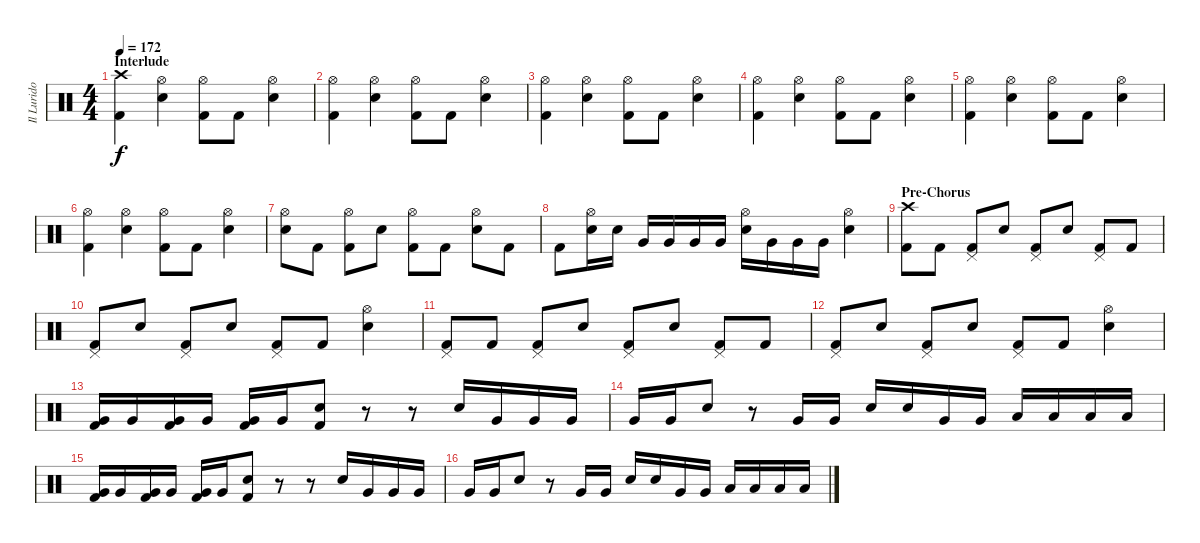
\track ("Il Lurido Cavernicolo (Drums)" "Il Lurido ") {instrument percussion}
\staff {score}
\articulation defaults
\ts (4 4)
\section ("" "Interlude")
\tempo 172
\clef neutral
\ks c
("Crash high (hit)" "Kick (hit) 2").4{dy f} ("Hi-Hat (open)" "Electric Snare (hit)").4 ("Hi-Hat (open)" "Kick (hit) 2").8 "Kick (hit) 2".8 ("Hi-Hat (open)" "Electric Snare (hit)").4 |
("Hi-Hat (open)" "Kick (hit) 2").4 ("Hi-Hat (open)" "Electric Snare (hit)").4 ("Hi-Hat (open)" "Kick (hit) 2").8 "Kick (hit) 2".8 ("Hi-Hat (open)" "Electric Snare (hit)").4 |
("Hi-Hat (open)" "Kick (hit) 2").4 ("Hi-Hat (open)" "Electric Snare (hit)").4 ("Hi-Hat (open)" "Kick (hit) 2").8 "Kick (hit) 2".8 ("Hi-Hat (open)" "Electric Snare (hit)").4 |
("Hi-Hat (open)" "Kick (hit) 2").4 ("Hi-Hat (open)" "Electric Snare (hit)").4 ("Hi-Hat (open)" "Kick (hit) 2").8 "Kick (hit) 2".8 ("Hi-Hat (open)" "Electric Snare (hit)").4 |
("Hi-Hat (open)" "Kick (hit) 2").4 ("Hi-Hat (open)" "Electric Snare (hit)").4 ("Hi-Hat (open)" "Kick (hit) 2").8 "Kick (hit) 2".8 ("Hi-Hat (open)" "Electric Snare (hit)").4 |
("Hi-Hat (open)" "Kick (hit) 2").4 ("Hi-Hat (open)" "Electric Snare (hit)").4 ("Hi-Hat (open)" "Kick (hit) 2").8 "Kick (hit) 2".8 ("Hi-Hat (open)" "Electric Snare (hit)").4 |
("Hi-Hat (open)" "Electric Snare (hit)").8 "Kick (hit) 2".8 ("Hi-Hat (open)" "Kick (hit) 2").8 "Electric Snare (hit)".8 ("Hi-Hat (open)" "Kick (hit) 2").8 "Kick (hit) 2".8 ("Hi-Hat (open)" "Electric Snare (hit)").8 "Kick (hit) 2".8 |
"Kick (hit) 2".8 ("Hi-Hat (open)" "Electric Snare (hit)").16 "Electric Snare (hit)".16 "Very Low Tom (hit)".16 "Very Low Tom (hit)".16 "Very Low Tom (hit)".16 "Very Low Tom (hit)".16 ("Hi-Hat (open)" "Electric Snare (hit)").16 "Very Low Tom (hit)".16 "Very Low Tom (hit)".16 "Very Low Tom (hit)".16 ("Hi-Hat (open)" "Electric Snare (hit)").4 |
\section ("" "Pre-Chorus")
("Crash high (hit)" "Kick (hit) 2").8 "Kick (hit) 2".8 ("Pedal Hi-Hat (hit)" "Kick (hit) 2").8 "Electric Snare (hit)".8 ("Pedal Hi-Hat (hit)" "Kick (hit) 2").8 "Electric Snare (hit)".8 ("Pedal Hi-Hat (hit)" "Kick (hit) 2").8 "Kick (hit) 2".8 |
("Pedal Hi-Hat (hit)" "Kick (hit) 2").8 "Electric Snare (hit)".8 ("Pedal Hi-Hat (hit)" "Kick (hit) 2").8 "Electric Snare (hit)".8 ("Pedal Hi-Hat (hit)" "Kick (hit) 2").8 "Kick (hit) 2".8 ("Hi-Hat (open)" "Electric Snare (hit)").4 |
("Pedal Hi-Hat (hit)" "Kick (hit) 2").8 "Kick (hit) 2".8 ("Pedal Hi-Hat (hit)" "Kick (hit) 2").8 "Electric Snare (hit)".8 ("Pedal Hi-Hat (hit)" "Kick (hit) 2").8 "Electric Snare (hit)".8 ("Pedal Hi-Hat (hit)" "Kick (hit) 2").8 "Kick (hit) 2".8 |
("Pedal Hi-Hat (hit)" "Kick (hit) 2").8 "Electric Snare (hit)".8 ("Pedal Hi-Hat (hit)" "Kick (hit) 2").8 "Electric Snare (hit)".8 ("Pedal Hi-Hat (hit)" "Kick (hit) 2").8 "Kick (hit) 2".8 ("Hi-Hat (open)" "Electric Snare (hit)").4 |
("Very Low Tom (hit)" "Kick (hit) 2").16 "Very Low Tom (hit)".16 ("Very Low Tom (hit)" "Kick (hit) 2").16 "Very Low Tom (hit)".16 ("Very Low Tom (hit)" "Kick (hit) 2").16 "Very Low Tom (hit)".16 ("Electric Snare (hit)" "Kick (hit) 2").8 r.8 r.8 "Electric Snare (hit)".16 "Very Low Tom (hit)".16 "Very Low Tom (hit)".16 "Very Low Tom (hit)".16 |
"Very Low Tom (hit)".16 "Very Low Tom (hit)".16 "Electric Snare (hit)".8 r.8 "Very Low Tom (hit)".16 "Very Low Tom (hit)".16 "Electric Snare (hit)".16 "Electric Snare (hit)".16 "Very Low Tom (hit)".16 "Very Low Tom (hit)".16 "Low Floor Tom (hit)".16 "Low Floor Tom (hit)".16 "Low Tom (hit)".16 "Low Tom (hit)".16 |
("Very Low Tom (hit)" "Kick (hit) 2").16 "Very Low Tom (hit)".16 ("Very Low Tom (hit)" "Kick (hit) 2").16 "Very Low Tom (hit)".16 ("Very Low Tom (hit)" "Kick (hit) 2").16 "Very Low Tom (hit)".16 ("Electric Snare (hit)" "Kick (hit) 2").8 r.8 r.8 "Electric Snare (hit)".16 "Very Low Tom (hit)".16 "Very Low Tom (hit)".16 "Very Low Tom (hit)".16 |
"Very Low Tom (hit)".16 "Very Low Tom (hit)".16 "Electric Snare (hit)".8 r.8 "Very Low Tom (hit)".16 "Very Low Tom (hit)".16 "Electric Snare (hit)".16 "Electric Snare (hit)".16 "Very Low Tom (hit)".16 "Very Low Tom (hit)".16 "Low Floor Tom (hit)".16 "Low Floor Tom (hit)".16 "Low Tom (hit)".16 "Low Tom (hit)".16
